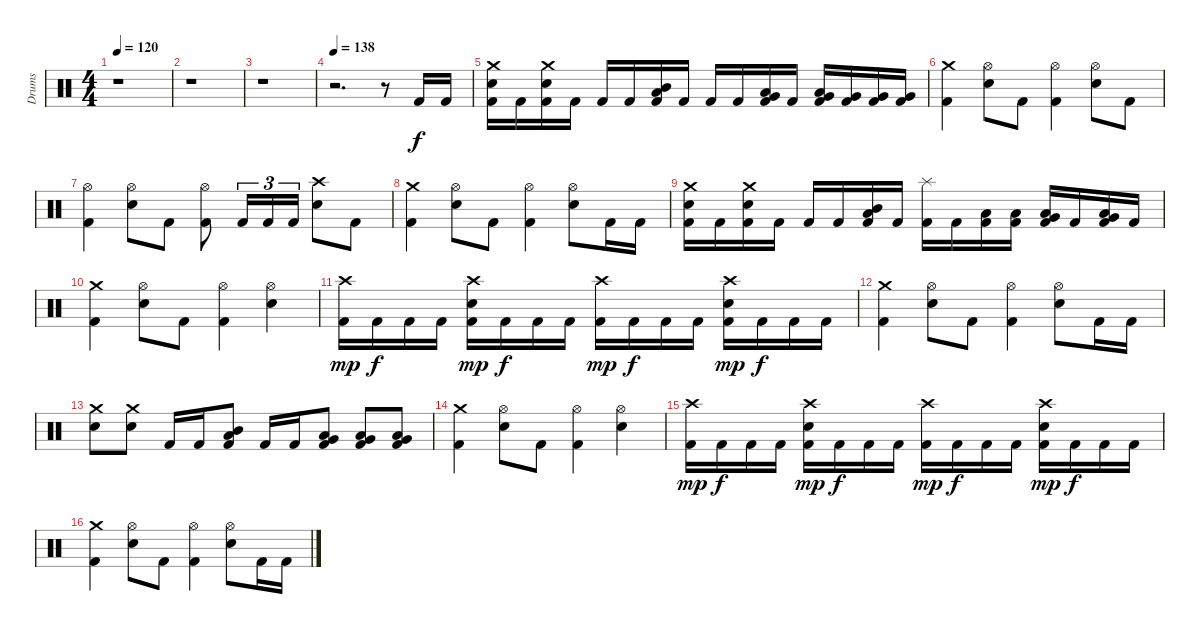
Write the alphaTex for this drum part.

\track ("Drums" "Drums") {instrument percussion}
\staff {score}
\articulation defaults
\ts (4 4)
\tempo 120
\clef neutral
\ks c
r.1{dy f} |
r.1 |
r.1 |
\tempo 138
r.2{d} r.8 "Kick (hit) 2".16 "Kick (hit) 2".16 |
("Kick (hit) 2" "Electric Snare (hit)" "Crash medium (hit)").16 "Kick (hit) 2".16 ("Kick (hit) 2" "Electric Snare (hit)" "Crash medium (hit)").16 "Kick (hit) 2".16 "Kick (hit) 2".16 "Kick (hit) 2".16 ("Kick (hit) 2" "Mid Tom (hit)" "Low Tom (hit)").16 "Kick (hit) 2".16 "Kick (hit) 2".16 "Kick (hit) 2".16 ("Kick (hit) 2" "Low Tom (hit)" "Very Low Tom (hit)").16 "Kick (hit) 2".16 ("Kick (hit) 2" "Low Tom (hit)" "Very Low Tom (hit)").16 ("Kick (hit) 2" "Very Low Tom (hit)").16 ("Kick (hit) 2" "Very Low Tom (hit)").16 ("Kick (hit) 2" "Very Low Tom (hit)").16 |
("Kick (hit) 2" "Crash medium (hit)").4 ("Electric Snare (hit)" "Hi-Hat (open)").8 "Kick (hit) 2".8 ("Kick (hit) 2" "Hi-Hat (open)").4 ("Electric Snare (hit)" "Hi-Hat (open)").8 "Kick (hit) 2".8 |
("Kick (hit) 2" "Hi-Hat (open)").4 ("Electric Snare (hit)" "Hi-Hat (open)").8 "Kick (hit) 2".8 ("Kick (hit) 2" "Hi-Hat (open)").8 "Kick (hit) 2".16{tu (3 2)} "Kick (hit) 2".16{tu (3 2)} "Kick (hit) 2".16{tu (3 2)} ("Electric Snare (hit)" "Crash high (hit)").8 "Kick (hit) 2".8 |
("Kick (hit) 2" "Crash medium (hit)").4 ("Electric Snare (hit)" "Hi-Hat (open)").8 "Kick (hit) 2".8 ("Kick (hit) 2" "Hi-Hat (open)").4 ("Electric Snare (hit)" "Hi-Hat (open)").8 "Kick (hit) 2".16 "Kick (hit) 2".16 |
("Kick (hit) 2" "Electric Snare (hit)" "Crash medium (hit)").16 "Kick (hit) 2".16 ("Kick (hit) 2" "Electric Snare (hit)" "Crash medium (hit)").16 "Kick (hit) 2".16 "Kick (hit) 2".16 "Kick (hit) 2".16 ("Kick (hit) 2" "Mid Tom (hit)" "Low Tom (hit)").16 "Kick (hit) 2".16 ("Kick (hit) 2" "Splash (hit)").16 "Kick (hit) 2".16 ("Kick (hit) 2" "Low Tom (hit)").16 ("Kick (hit) 2" "Low Tom (hit)").16 ("Kick (hit) 2" "Very Low Tom (hit)" "Low Floor Tom (hit)").16 "Kick (hit) 2".16 ("Kick (hit) 2" "Very Low Tom (hit)" "Low Floor Tom (hit)").16 "Kick (hit) 2".16 |
("Kick (hit) 2" "Crash medium (hit)").4 ("Electric Snare (hit)" "Hi-Hat (open)").8 "Kick (hit) 2".8 ("Kick (hit) 2" "Hi-Hat (open)").4 ("Electric Snare (hit)" "Hi-Hat (open)").4 |
("Kick (hit) 2" "Crash high (hit)").16{dy mp} "Kick (hit) 2".16{dy f} "Kick (hit) 2".16 "Kick (hit) 2".16 ("Kick (hit) 2" "Electric Snare (hit)" "Crash high (hit)").16{dy mp} "Kick (hit) 2".16{dy f} "Kick (hit) 2".16 "Kick (hit) 2".16 ("Kick (hit) 2" "Crash high (hit)").16{dy mp} "Kick (hit) 2".16{dy f} "Kick (hit) 2".16 "Kick (hit) 2".16 ("Kick (hit) 2" "Electric Snare (hit)" "Crash high (hit)").16{dy mp} "Kick (hit) 2".16{dy f} "Kick (hit) 2".16 "Kick (hit) 2".16 |
("Kick (hit) 2" "Crash medium (hit)").4 ("Electric Snare (hit)" "Hi-Hat (open)").8 "Kick (hit) 2".8 ("Kick (hit) 2" "Hi-Hat (open)").4 ("Electric Snare (hit)" "Hi-Hat (open)").8 "Kick (hit) 2".16 "Kick (hit) 2".16 |
("Electric Snare (hit)" "Crash medium (hit)").8 ("Electric Snare (hit)" "Crash medium (hit)").8 "Kick (hit) 2".16 "Kick (hit) 2".16 ("Kick (hit) 2" "Mid Tom (hit)" "Low Tom (hit)").8 "Kick (hit) 2".16 "Kick (hit) 2".16 ("Kick (hit) 2" "Low Tom (hit)" "Very Low Tom (hit)").8 ("Kick (hit) 2" "Very Low Tom (hit)" "Low Floor Tom (hit)").8 ("Kick (hit) 2" "Very Low Tom (hit)" "Low Floor Tom (hit)").8 |
("Kick (hit) 2" "Crash medium (hit)").4 ("Electric Snare (hit)" "Hi-Hat (open)").8 "Kick (hit) 2".8 ("Kick (hit) 2" "Hi-Hat (open)").4 ("Electric Snare (hit)" "Hi-Hat (open)").4 |
("Kick (hit) 2" "Crash high (hit)").16{dy mp} "Kick (hit) 2".16{dy f} "Kick (hit) 2".16 "Kick (hit) 2".16 ("Kick (hit) 2" "Electric Snare (hit)" "Crash high (hit)").16{dy mp} "Kick (hit) 2".16{dy f} "Kick (hit) 2".16 "Kick (hit) 2".16 ("Kick (hit) 2" "Crash high (hit)").16{dy mp} "Kick (hit) 2".16{dy f} "Kick (hit) 2".16 "Kick (hit) 2".16 ("Kick (hit) 2" "Electric Snare (hit)" "Crash high (hit)").16{dy mp} "Kick (hit) 2".16{dy f} "Kick (hit) 2".16 "Kick (hit) 2".16 |
("Kick (hit) 2" "Crash medium (hit)").4 ("Electric Snare (hit)" "Hi-Hat (open)").8 "Kick (hit) 2".8 ("Kick (hit) 2" "Hi-Hat (open)").4 ("Electric Snare (hit)" "Hi-Hat (open)").8 "Kick (hit) 2".16 "Kick (hit) 2".16
